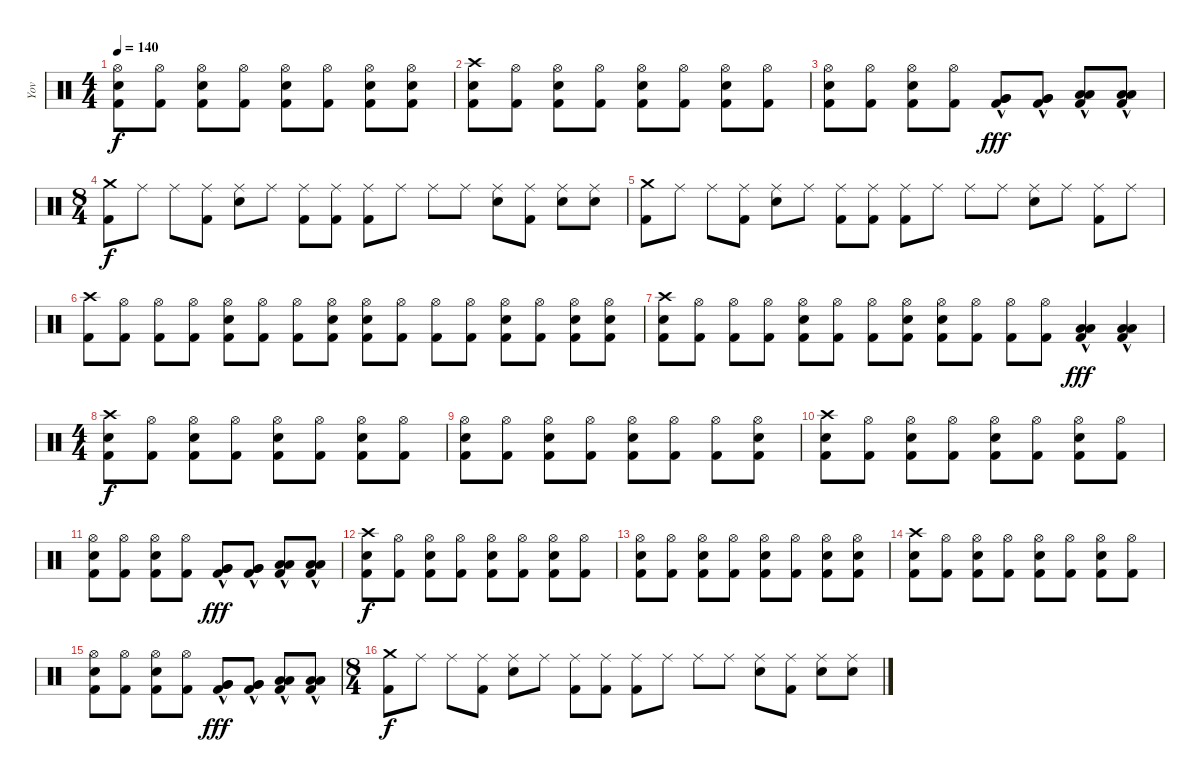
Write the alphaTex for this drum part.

\track ("Yov" "Yov") {instrument percussion}
\staff {score}
\articulation defaults
\ts (4 4)
\tempo 140
\clef neutral
\ks c
("Hi-Hat (open)" "Electric Snare (hit)" "Kick (hit) 2").8{dy f} ("Hi-Hat (open)" "Kick (hit) 2").8 ("Hi-Hat (open)" "Electric Snare (hit)" "Kick (hit) 2").8 ("Hi-Hat (open)" "Kick (hit) 2").8 ("Hi-Hat (open)" "Electric Snare (hit)" "Kick (hit) 2").8 ("Hi-Hat (open)" "Kick (hit) 2").8 ("Hi-Hat (open)" "Electric Snare (hit)" "Kick (hit) 2").8 ("Hi-Hat (open)" "Electric Snare (hit)" "Kick (hit) 2").8 |
("Crash high (hit)" "Electric Snare (hit)" "Kick (hit) 2").8 ("Hi-Hat (open)" "Kick (hit) 2").8 ("Hi-Hat (open)" "Electric Snare (hit)" "Kick (hit) 2").8 ("Hi-Hat (open)" "Kick (hit) 2").8 ("Hi-Hat (open)" "Electric Snare (hit)" "Kick (hit) 2").8 ("Hi-Hat (open)" "Kick (hit) 2").8 ("Hi-Hat (open)" "Electric Snare (hit)" "Kick (hit) 2").8 ("Hi-Hat (open)" "Kick (hit) 2").8 |
("Hi-Hat (open)" "Electric Snare (hit)" "Kick (hit) 2").8 ("Hi-Hat (open)" "Kick (hit) 2").8 ("Hi-Hat (open)" "Electric Snare (hit)" "Kick (hit) 2").8 ("Hi-Hat (open)" "Kick (hit) 2").8 ("Very Low Tom (hit)"{hac} "Very Low Tom (hit)"{hac} "Kick (hit) 2").8{dy fff} ("Very Low Tom (hit)"{hac} "Very Low Tom (hit)"{hac} "Kick (hit) 2").8 ("Low Tom (hit)"{hac} "Low Tom (hit)"{hac} "Kick (hit) 2").8 ("Low Tom (hit)"{hac} "Low Tom (hit)"{hac} "Kick (hit) 2").8 |
\ts (8 4)
("Crash medium (hit)" "Kick (hit) 2").8{dy f} "Ride (middle)".8 "Ride (middle)".8 ("Ride (middle)" "Kick (hit) 2").8 ("Ride (middle)" "Electric Snare (hit)").8 "Ride (middle)".8 ("Ride (middle)" "Kick (hit) 2").8 ("Ride (middle)" "Kick (hit) 2").8 ("Ride (middle)" "Kick (hit) 2").8 "Ride (middle)".8 "Ride (middle)".8 "Ride (middle)".8 ("Ride (middle)" "Electric Snare (hit)").8 ("Ride (middle)" "Kick (hit) 2").8 ("Ride (middle)" "Electric Snare (hit)").8 ("Ride (middle)" "Electric Snare (hit)").8 |
("Crash medium (hit)" "Kick (hit) 2").8 "Ride (middle)".8 "Ride (middle)".8 ("Ride (middle)" "Kick (hit) 2").8 ("Ride (middle)" "Electric Snare (hit)").8 "Ride (middle)".8 ("Ride (middle)" "Kick (hit) 2").8 ("Ride (middle)" "Kick (hit) 2").8 ("Ride (middle)" "Kick (hit) 2").8 "Ride (middle)".8 "Ride (middle)".8 "Ride (middle)".8 ("Ride (middle)" "Electric Snare (hit)").8 "Ride (middle)".8 ("Ride (middle)" "Kick (hit) 2").8 "Ride (middle)".8 |
("Crash high (hit)" "Kick (hit) 2").8 ("Hi-Hat (open)" "Kick (hit) 2").8 ("Hi-Hat (open)" "Kick (hit) 2").8 ("Hi-Hat (open)" "Kick (hit) 2").8 ("Hi-Hat (open)" "Electric Snare (hit)" "Kick (hit) 2").8 ("Hi-Hat (open)" "Kick (hit) 2").8 ("Hi-Hat (open)" "Kick (hit) 2").8 ("Hi-Hat (open)" "Electric Snare (hit)" "Kick (hit) 2").8 ("Hi-Hat (open)" "Electric Snare (hit)" "Kick (hit) 2").8 ("Hi-Hat (open)" "Kick (hit) 2").8 ("Hi-Hat (open)" "Kick (hit) 2").8 ("Hi-Hat (open)" "Kick (hit) 2").8 ("Hi-Hat (open)" "Electric Snare (hit)" "Kick (hit) 2").8 ("Hi-Hat (open)" "Kick (hit) 2").8 ("Hi-Hat (open)" "Electric Snare (hit)" "Kick (hit) 2").8 ("Hi-Hat (open)" "Electric Snare (hit)" "Kick (hit) 2").8 |
("Crash high (hit)" "Electric Snare (hit)" "Kick (hit) 2").8 ("Hi-Hat (open)" "Kick (hit) 2").8 ("Hi-Hat (open)" "Kick (hit) 2").8 ("Hi-Hat (open)" "Kick (hit) 2").8 ("Hi-Hat (open)" "Electric Snare (hit)" "Kick (hit) 2").8 ("Hi-Hat (open)" "Kick (hit) 2").8 ("Hi-Hat (open)" "Kick (hit) 2").8 ("Hi-Hat (open)" "Electric Snare (hit)" "Kick (hit) 2").8 ("Hi-Hat (open)" "Electric Snare (hit)" "Kick (hit) 2").8 ("Hi-Hat (open)" "Kick (hit) 2").8 ("Hi-Hat (open)" "Kick (hit) 2").8 ("Hi-Hat (open)" "Kick (hit) 2").8 ("Low Floor Tom (hit)"{hac} "Low Floor Tom (hit)"{hac} "Kick (hit) 2").4{dy fff} ("Low Floor Tom (hit)"{hac} "Low Floor Tom (hit)"{hac} "Kick (hit) 2").4 |
\ts (4 4)
("Crash high (hit)" "Electric Snare (hit)" "Kick (hit) 2").8{dy f} ("Hi-Hat (open)" "Kick (hit) 2").8 ("Hi-Hat (open)" "Electric Snare (hit)" "Kick (hit) 2").8 ("Hi-Hat (open)" "Kick (hit) 2").8 ("Hi-Hat (open)" "Electric Snare (hit)" "Kick (hit) 2").8 ("Hi-Hat (open)" "Kick (hit) 2").8 ("Hi-Hat (open)" "Electric Snare (hit)" "Kick (hit) 2").8 ("Hi-Hat (open)" "Kick (hit) 2").8 |
("Hi-Hat (open)" "Electric Snare (hit)" "Kick (hit) 2").8 ("Hi-Hat (open)" "Kick (hit) 2").8 ("Hi-Hat (open)" "Electric Snare (hit)" "Kick (hit) 2").8 ("Hi-Hat (open)" "Kick (hit) 2").8 ("Hi-Hat (open)" "Electric Snare (hit)" "Kick (hit) 2").8 ("Hi-Hat (open)" "Kick (hit) 2").8 ("Hi-Hat (open)" "Kick (hit) 2").8 ("Hi-Hat (open)" "Electric Snare (hit)" "Kick (hit) 2").8 |
("Crash high (hit)" "Electric Snare (hit)" "Kick (hit) 2").8 ("Hi-Hat (open)" "Kick (hit) 2").8 ("Hi-Hat (open)" "Electric Snare (hit)" "Kick (hit) 2").8 ("Hi-Hat (open)" "Kick (hit) 2").8 ("Hi-Hat (open)" "Electric Snare (hit)" "Kick (hit) 2").8 ("Hi-Hat (open)" "Kick (hit) 2").8 ("Hi-Hat (open)" "Electric Snare (hit)" "Kick (hit) 2").8 ("Hi-Hat (open)" "Kick (hit) 2").8 |
("Hi-Hat (open)" "Electric Snare (hit)" "Kick (hit) 2").8 ("Hi-Hat (open)" "Kick (hit) 2").8 ("Hi-Hat (open)" "Electric Snare (hit)" "Kick (hit) 2").8 ("Hi-Hat (open)" "Kick (hit) 2").8 ("Very Low Tom (hit)"{hac} "Very Low Tom (hit)"{hac} "Kick (hit) 2").8{dy fff} ("Very Low Tom (hit)"{hac} "Very Low Tom (hit)"{hac} "Kick (hit) 2").8 ("Low Tom (hit)"{hac} "Low Tom (hit)"{hac} "Kick (hit) 2").8 ("Low Tom (hit)"{hac} "Low Tom (hit)"{hac} "Kick (hit) 2").8 |
("Crash high (hit)" "Electric Snare (hit)" "Kick (hit) 2").8{dy f} ("Hi-Hat (open)" "Kick (hit) 2").8 ("Hi-Hat (open)" "Electric Snare (hit)" "Kick (hit) 2").8 ("Hi-Hat (open)" "Kick (hit) 2").8 ("Hi-Hat (open)" "Electric Snare (hit)" "Kick (hit) 2").8 ("Hi-Hat (open)" "Kick (hit) 2").8 ("Hi-Hat (open)" "Electric Snare (hit)" "Kick (hit) 2").8 ("Hi-Hat (open)" "Kick (hit) 2").8 |
("Hi-Hat (open)" "Electric Snare (hit)" "Kick (hit) 2").8 ("Hi-Hat (open)" "Kick (hit) 2").8 ("Hi-Hat (open)" "Electric Snare (hit)" "Kick (hit) 2").8 ("Hi-Hat (open)" "Kick (hit) 2").8 ("Hi-Hat (open)" "Electric Snare (hit)" "Kick (hit) 2").8 ("Hi-Hat (open)" "Kick (hit) 2").8 ("Hi-Hat (open)" "Electric Snare (hit)" "Kick (hit) 2").8 ("Hi-Hat (open)" "Electric Snare (hit)" "Kick (hit) 2").8 |
("Crash high (hit)" "Electric Snare (hit)" "Kick (hit) 2").8 ("Hi-Hat (open)" "Kick (hit) 2").8 ("Hi-Hat (open)" "Electric Snare (hit)" "Kick (hit) 2").8 ("Hi-Hat (open)" "Kick (hit) 2").8 ("Hi-Hat (open)" "Electric Snare (hit)" "Kick (hit) 2").8 ("Hi-Hat (open)" "Kick (hit) 2").8 ("Hi-Hat (open)" "Electric Snare (hit)" "Kick (hit) 2").8 ("Hi-Hat (open)" "Kick (hit) 2").8 |
("Hi-Hat (open)" "Electric Snare (hit)" "Kick (hit) 2").8 ("Hi-Hat (open)" "Kick (hit) 2").8 ("Hi-Hat (open)" "Electric Snare (hit)" "Kick (hit) 2").8 ("Hi-Hat (open)" "Kick (hit) 2").8 ("Very Low Tom (hit)"{hac} "Very Low Tom (hit)"{hac} "Kick (hit) 2").8{dy fff} ("Very Low Tom (hit)"{hac} "Very Low Tom (hit)"{hac} "Kick (hit) 2").8 ("Low Tom (hit)"{hac} "Low Tom (hit)"{hac} "Kick (hit) 2").8 ("Low Tom (hit)"{hac} "Low Tom (hit)"{hac} "Kick (hit) 2").8 |
\ts (8 4)
("Crash medium (hit)" "Kick (hit) 2").8{dy f} "Ride (middle)".8 "Ride (middle)".8 ("Ride (middle)" "Kick (hit) 2").8 ("Ride (middle)" "Electric Snare (hit)").8 "Ride (middle)".8 ("Ride (middle)" "Kick (hit) 2").8 ("Ride (middle)" "Kick (hit) 2").8 ("Ride (middle)" "Kick (hit) 2").8 "Ride (middle)".8 "Ride (middle)".8 "Ride (middle)".8 ("Ride (middle)" "Electric Snare (hit)").8 ("Ride (middle)" "Kick (hit) 2").8 ("Ride (middle)" "Electric Snare (hit)").8 ("Ride (middle)" "Electric Snare (hit)").8
